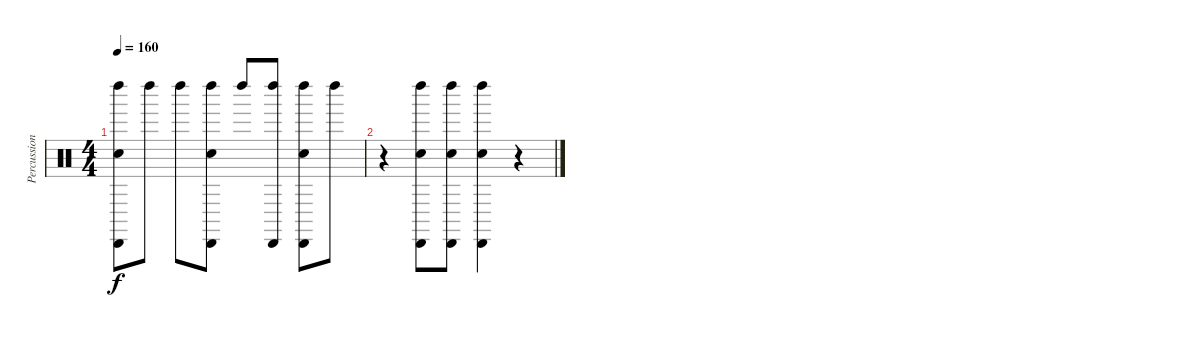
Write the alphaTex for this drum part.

\track ("Percussion A (Tainaka Ritsu)" "Percussion") {instrument percussion}
\staff {score}
\articulation defaults
\ts (4 4)
\tempo 160
\clef neutral
\ks c
("Left Maraca (hit)" "Cabasa (hit)" "Hand Clap (hit)").8{dy f} "Left Maraca (hit)".8 "Left Maraca (hit)".8 ("Left Maraca (hit)" "Cabasa (hit)" "Hand Clap (hit)").8 "Left Maraca (hit)".8 ("Left Maraca (hit)" "Cabasa (hit)").8 ("Left Maraca (hit)" "Cabasa (hit)" "Hand Clap (hit)").8 "Left Maraca (hit)".8 |
r.4 ("Left Maraca (hit)" "Cabasa (hit)" "Hand Clap (hit)").8 ("Left Maraca (hit)" "Cabasa (hit)" "Hand Clap (hit)").8 ("Left Maraca (hit)" "Cabasa (hit)" "Hand Clap (hit)").4 r.4
